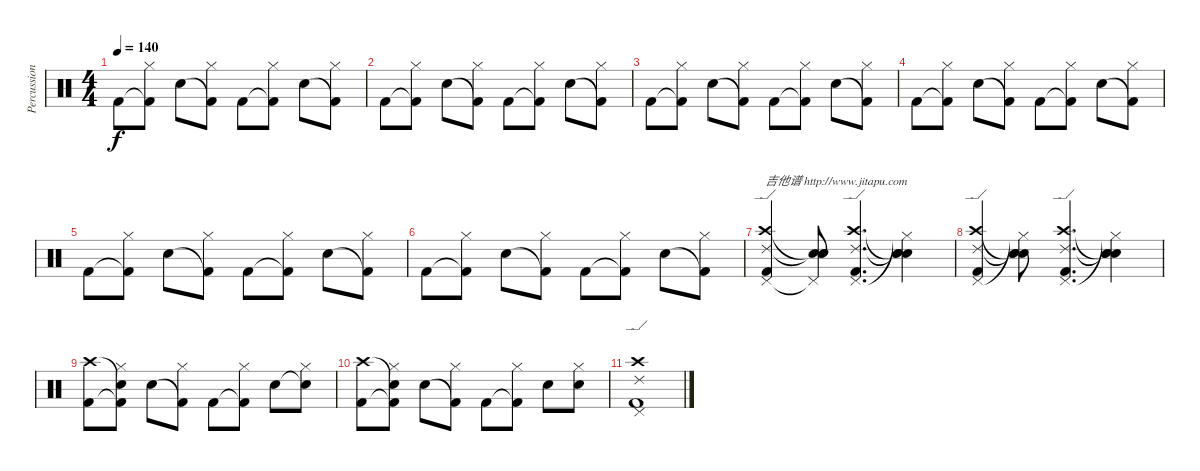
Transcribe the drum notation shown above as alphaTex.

\track ("Percussion" "Percussion") {instrument percussion}
\staff {score}
\articulation defaults
\ts (4 4)
\tempo 140
\clef neutral
\ks c "Kick (hit) 2".8{dy f}
("Kick (hit) 2"{t} "Hi-Hat (closed)").8 "Snare (hit) 2".8 ("Kick (hit) 2"{t} "Hi-Hat (closed)").8 "Kick (hit) 2".8 ("Kick (hit) 2"{t} "Hi-Hat (closed)").8 "Snare (hit) 2".8 ("Kick (hit) 2"{t} "Hi-Hat (closed)").8 |
"Kick (hit) 2".8 ("Kick (hit) 2"{t} "Hi-Hat (closed)").8 "Snare (hit) 2".8 ("Kick (hit) 2"{t} "Hi-Hat (closed)").8 "Kick (hit) 2".8 ("Kick (hit) 2"{t} "Hi-Hat (closed)").8 "Snare (hit) 2".8 ("Kick (hit) 2"{t} "Hi-Hat (closed)").8 |
"Kick (hit) 2".8 ("Kick (hit) 2"{t} "Hi-Hat (closed)").8 "Snare (hit) 2".8 ("Kick (hit) 2"{t} "Hi-Hat (closed)").8 "Kick (hit) 2".8 ("Kick (hit) 2"{t} "Hi-Hat (closed)").8 "Snare (hit) 2".8 ("Kick (hit) 2"{t} "Hi-Hat (closed)").8 |
"Kick (hit) 2".8 ("Kick (hit) 2"{t} "Hi-Hat (closed)").8 "Snare (hit) 2".8 ("Kick (hit) 2"{t} "Hi-Hat (closed)").8 "Kick (hit) 2".8 ("Kick (hit) 2"{t} "Hi-Hat (closed)").8 "Snare (hit) 2".8 ("Kick (hit) 2"{t} "Hi-Hat (closed)").8 |
"Kick (hit) 2".8 ("Kick (hit) 2"{t} "Hi-Hat (closed)").8 "Snare (hit) 2".8 ("Kick (hit) 2"{t} "Hi-Hat (closed)").8 "Kick (hit) 2".8 ("Kick (hit) 2"{t} "Hi-Hat (closed)").8 "Snare (hit) 2".8 ("Kick (hit) 2"{t} "Hi-Hat (closed)").8 |
"Kick (hit) 2".8 ("Kick (hit) 2"{t} "Hi-Hat (closed)").8 "Snare (hit) 2".8 ("Kick (hit) 2"{t} "Hi-Hat (closed)").8 "Kick (hit) 2".8 ("Kick (hit) 2"{t} "Hi-Hat (closed)").8 "Snare (hit) 2".8 ("Kick (hit) 2"{t} "Hi-Hat (closed)").8 |
("Kick (hit) 2" "Crash high (hit)" "Ride (edge) 2" "Pedal Hi-Hat (hit)").4{txt "吉他谱 http://www.jitapu.com"} ("Snare (hit) 2" "Snare (hit)"{t} "Snare (hit)"{t} "Pedal Hi-Hat (hit)"{t}).8 ("Kick (hit) 2" "Crash high (hit)" "Ride (edge) 2" "Pedal Hi-Hat (hit)").4{d} ("Snare (hit) 2" "Snare (hit)"{t} "Snare (hit)"{t} "Hi-Hat (closed)"{t}).4 |
("Kick (hit) 2" "Crash high (hit)" "Ride (edge) 2" "Pedal Hi-Hat (hit)").4 ("Snare (hit) 2" "Snare (hit)"{t} "Snare (hit)"{t} "Hi-Hat (closed)"{t}).8 ("Kick (hit) 2" "Crash high (hit)" "Ride (edge) 2" "Pedal Hi-Hat (hit)").4{d} ("Snare (hit) 2" "Snare (hit)"{t} "Snare (hit)"{t} "Hi-Hat (closed)"{t}).4 |
("Kick (hit) 2" "Crash high (hit)").8 ("Kick (hit) 2"{t} "Snare (hit)"{t} "Hi-Hat (closed)").8 "Snare (hit) 2".8 ("Kick (hit) 2"{t} "Hi-Hat (closed)").8 "Kick (hit) 2".8 ("Kick (hit) 2"{t} "Hi-Hat (closed)").8 "Snare (hit) 2".8 ("Snare (hit) 2"{t} "Hi-Hat (closed)").8 |
("Kick (hit) 2" "Crash high (hit)").8 ("Kick (hit) 2"{t} "Snare (hit)"{t} "Hi-Hat (closed)").8 "Snare (hit) 2".8 ("Kick (hit) 2"{t} "Hi-Hat (closed)").8 "Kick (hit) 2".8 ("Kick (hit) 2"{t} "Hi-Hat (closed)").8 "Snare (hit) 2".8 ("Snare (hit) 2" "Hi-Hat (closed)").8 |
("Kick (hit) 2" "Crash high (hit)" "Ride (edge) 2" "Pedal Hi-Hat (hit)").1
